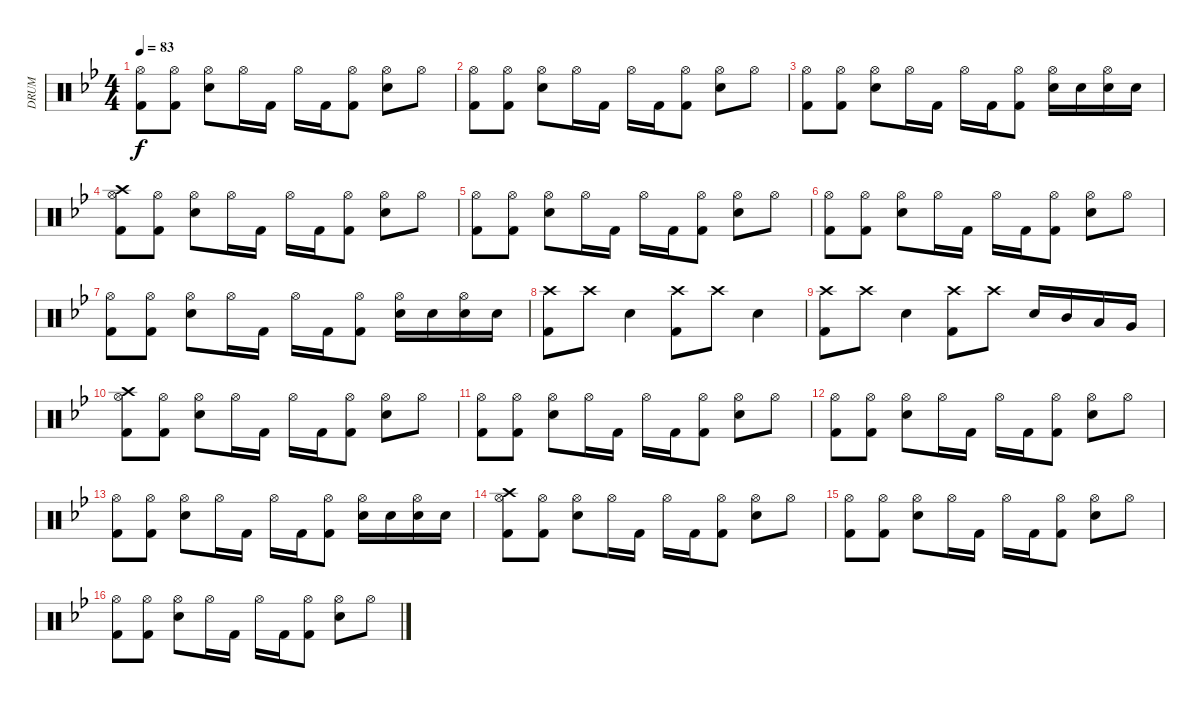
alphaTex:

\track ("DRUM" "DRUM") {instrument percussion}
\staff {score}
\articulation defaults
\ts (4 4)
\tempo 83
\clef neutral
\ks gminor
("Hi-Hat (open)" "Kick (hit) 2").8{dy f} ("Hi-Hat (open)" "Kick (hit) 2").8 ("Hi-Hat (open)" "Electric Snare (hit)").8 "Hi-Hat (open)".16 "Kick (hit) 2".16 "Hi-Hat (open)".16 "Kick (hit) 2".16 ("Hi-Hat (open)" "Kick (hit) 2").8 ("Hi-Hat (open)" "Electric Snare (hit)").8 "Hi-Hat (open)".8 |
("Hi-Hat (open)" "Kick (hit) 2").8 ("Hi-Hat (open)" "Kick (hit) 2").8 ("Hi-Hat (open)" "Electric Snare (hit)").8 "Hi-Hat (open)".16 "Kick (hit) 2".16 "Hi-Hat (open)".16 "Kick (hit) 2".16 ("Hi-Hat (open)" "Kick (hit) 2").8 ("Hi-Hat (open)" "Electric Snare (hit)").8 "Hi-Hat (open)".8 |
("Hi-Hat (open)" "Kick (hit) 2").8 ("Hi-Hat (open)" "Kick (hit) 2").8 ("Hi-Hat (open)" "Electric Snare (hit)").8 "Hi-Hat (open)".16 "Kick (hit) 2".16 "Hi-Hat (open)".16 "Kick (hit) 2".16 ("Hi-Hat (open)" "Kick (hit) 2").8 ("Hi-Hat (open)" "Electric Snare (hit)").16 "Electric Snare (hit)".16 ("Hi-Hat (open)" "Electric Snare (hit)").16 "Electric Snare (hit)".16 |
("Hi-Hat (open)" "Crash high (hit)" "Kick (hit) 2").8 ("Hi-Hat (open)" "Kick (hit) 2").8 ("Hi-Hat (open)" "Electric Snare (hit)").8 "Hi-Hat (open)".16 "Kick (hit) 2".16 "Hi-Hat (open)".16 "Kick (hit) 2".16 ("Hi-Hat (open)" "Kick (hit) 2").8 ("Hi-Hat (open)" "Electric Snare (hit)").8 "Hi-Hat (open)".8 |
("Hi-Hat (open)" "Kick (hit) 2").8 ("Hi-Hat (open)" "Kick (hit) 2").8 ("Hi-Hat (open)" "Electric Snare (hit)").8 "Hi-Hat (open)".16 "Kick (hit) 2".16 "Hi-Hat (open)".16 "Kick (hit) 2".16 ("Hi-Hat (open)" "Kick (hit) 2").8 ("Hi-Hat (open)" "Electric Snare (hit)").8 "Hi-Hat (open)".8 |
("Hi-Hat (open)" "Kick (hit) 2").8 ("Hi-Hat (open)" "Kick (hit) 2").8 ("Hi-Hat (open)" "Electric Snare (hit)").8 "Hi-Hat (open)".16 "Kick (hit) 2".16 "Hi-Hat (open)".16 "Kick (hit) 2".16 ("Hi-Hat (open)" "Kick (hit) 2").8 ("Hi-Hat (open)" "Electric Snare (hit)").8 "Hi-Hat (open)".8 |
("Hi-Hat (open)" "Kick (hit) 2").8 ("Hi-Hat (open)" "Kick (hit) 2").8 ("Hi-Hat (open)" "Electric Snare (hit)").8 "Hi-Hat (open)".16 "Kick (hit) 2".16 "Hi-Hat (open)".16 "Kick (hit) 2".16 ("Hi-Hat (open)" "Kick (hit) 2").8 ("Hi-Hat (open)" "Electric Snare (hit)").16 "Electric Snare (hit)".16 ("Hi-Hat (open)" "Electric Snare (hit)").16 "Electric Snare (hit)".16 |
("Crash high (hit)" "Kick (hit) 2").8 "Crash high (hit)".8 "Electric Snare (hit)".4 ("Crash high (hit)" "Kick (hit) 2").8 "Crash high (hit)".8 "Electric Snare (hit)".4 |
("Crash high (hit)" "Kick (hit) 2").8 "Crash high (hit)".8 "Electric Snare (hit)".4 ("Crash high (hit)" "Kick (hit) 2").8 "Crash high (hit)".8 "Electric Snare (hit)".16 "Mid Tom (hit)".16 "Low Tom (hit)".16 "Very Low Tom (hit)".16 |
("Hi-Hat (open)" "Crash high (hit)" "Kick (hit) 2").8 ("Hi-Hat (open)" "Kick (hit) 2").8 ("Hi-Hat (open)" "Electric Snare (hit)").8 "Hi-Hat (open)".16 "Kick (hit) 2".16 "Hi-Hat (open)".16 "Kick (hit) 2".16 ("Hi-Hat (open)" "Kick (hit) 2").8 ("Hi-Hat (open)" "Electric Snare (hit)").8 "Hi-Hat (open)".8 |
("Hi-Hat (open)" "Kick (hit) 2").8 ("Hi-Hat (open)" "Kick (hit) 2").8 ("Hi-Hat (open)" "Electric Snare (hit)").8 "Hi-Hat (open)".16 "Kick (hit) 2".16 "Hi-Hat (open)".16 "Kick (hit) 2".16 ("Hi-Hat (open)" "Kick (hit) 2").8 ("Hi-Hat (open)" "Electric Snare (hit)").8 "Hi-Hat (open)".8 |
("Hi-Hat (open)" "Kick (hit) 2").8 ("Hi-Hat (open)" "Kick (hit) 2").8 ("Hi-Hat (open)" "Electric Snare (hit)").8 "Hi-Hat (open)".16 "Kick (hit) 2".16 "Hi-Hat (open)".16 "Kick (hit) 2".16 ("Hi-Hat (open)" "Kick (hit) 2").8 ("Hi-Hat (open)" "Electric Snare (hit)").8 "Hi-Hat (open)".8 |
("Hi-Hat (open)" "Kick (hit) 2").8 ("Hi-Hat (open)" "Kick (hit) 2").8 ("Hi-Hat (open)" "Electric Snare (hit)").8 "Hi-Hat (open)".16 "Kick (hit) 2".16 "Hi-Hat (open)".16 "Kick (hit) 2".16 ("Hi-Hat (open)" "Kick (hit) 2").8 ("Hi-Hat (open)" "Electric Snare (hit)").16 "Electric Snare (hit)".16 ("Hi-Hat (open)" "Electric Snare (hit)").16 "Electric Snare (hit)".16 |
("Hi-Hat (open)" "Crash high (hit)" "Kick (hit) 2").8 ("Hi-Hat (open)" "Kick (hit) 2").8 ("Hi-Hat (open)" "Electric Snare (hit)").8 "Hi-Hat (open)".16 "Kick (hit) 2".16 "Hi-Hat (open)".16 "Kick (hit) 2".16 ("Hi-Hat (open)" "Kick (hit) 2").8 ("Hi-Hat (open)" "Electric Snare (hit)").8 "Hi-Hat (open)".8 |
("Hi-Hat (open)" "Kick (hit) 2").8 ("Hi-Hat (open)" "Kick (hit) 2").8 ("Hi-Hat (open)" "Electric Snare (hit)").8 "Hi-Hat (open)".16 "Kick (hit) 2".16 "Hi-Hat (open)".16 "Kick (hit) 2".16 ("Hi-Hat (open)" "Kick (hit) 2").8 ("Hi-Hat (open)" "Electric Snare (hit)").8 "Hi-Hat (open)".8 |
("Hi-Hat (open)" "Kick (hit) 2").8 ("Hi-Hat (open)" "Kick (hit) 2").8 ("Hi-Hat (open)" "Electric Snare (hit)").8 "Hi-Hat (open)".16 "Kick (hit) 2".16 "Hi-Hat (open)".16 "Kick (hit) 2".16 ("Hi-Hat (open)" "Kick (hit) 2").8 ("Hi-Hat (open)" "Electric Snare (hit)").8 "Hi-Hat (open)".8
